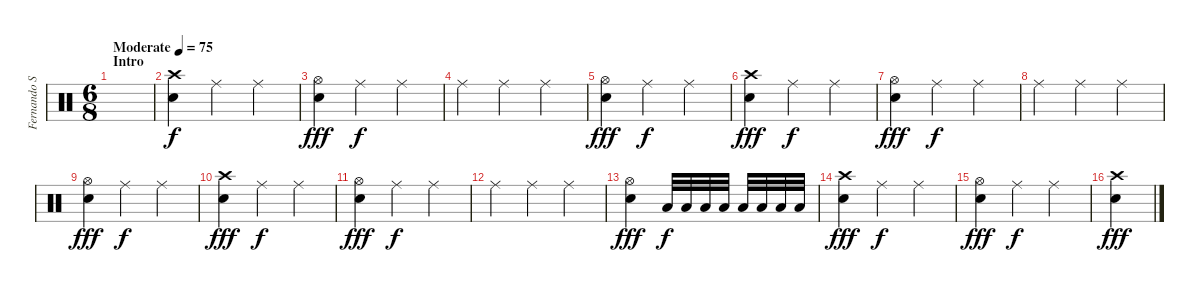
\track ("Fernando Scarcella " "Fernando S") {instrument percussion}
\staff {score}
\articulation defaults
\ts (6 8)
\section ("" "Intro")
\tempo (75 "Moderate")
\clef neutral
\ks c
|
("Snare (hit) 2" "Crash high (hit)").4 "Ride (middle)".4{dy f} "Ride (middle)".4 |
("Hi-Hat (open)" "Snare (hit) 2").4{dy fff} "Ride (middle)".4{dy f} "Ride (middle)".4 |
"Ride (middle)".4 "Ride (middle)".4 "Ride (middle)".4 |
("Hi-Hat (open)" "Snare (hit) 2").4{dy fff} "Ride (middle)".4{dy f} "Ride (middle)".4 |
("Snare (hit) 2" "Crash high (hit)").4{dy fff} "Ride (middle)".4{dy f} "Ride (middle)".4 |
("Hi-Hat (open)" "Snare (hit) 2").4{dy fff} "Ride (middle)".4{dy f} "Ride (middle)".4 |
"Ride (middle)".4 "Ride (middle)".4 "Ride (middle)".4 |
("Hi-Hat (open)" "Snare (hit) 2").4{dy fff} "Ride (middle)".4{dy f} "Ride (middle)".4 |
("Snare (hit) 2" "Crash high (hit)").4{dy fff} "Ride (middle)".4{dy f} "Ride (middle)".4 |
("Hi-Hat (open)" "Snare (hit) 2").4{dy fff} "Ride (middle)".4{dy f} "Ride (middle)".4 |
"Ride (middle)".4 "Ride (middle)".4 "Ride (middle)".4 |
("Hi-Hat (open)" "Snare (hit) 2").4{dy fff} "Low Floor Tom (hit)".32{dy f} "Low Floor Tom (hit)".32 "Low Floor Tom (hit)".32 "Low Floor Tom (hit)".32 "Low Floor Tom (hit)".32 "Low Floor Tom (hit)".32 "Low Floor Tom (hit)".32 "Low Floor Tom (hit)".32 |
("Snare (hit) 2" "Crash high (hit)").4{dy fff} "Ride (middle)".4{dy f} "Ride (middle)".4 |
("Hi-Hat (open)" "Snare (hit) 2").4{dy fff} "Ride (middle)".4{dy f} "Ride (middle)".4 |
("Snare (hit) 2" "Crash high (hit)").4{dy fff}
